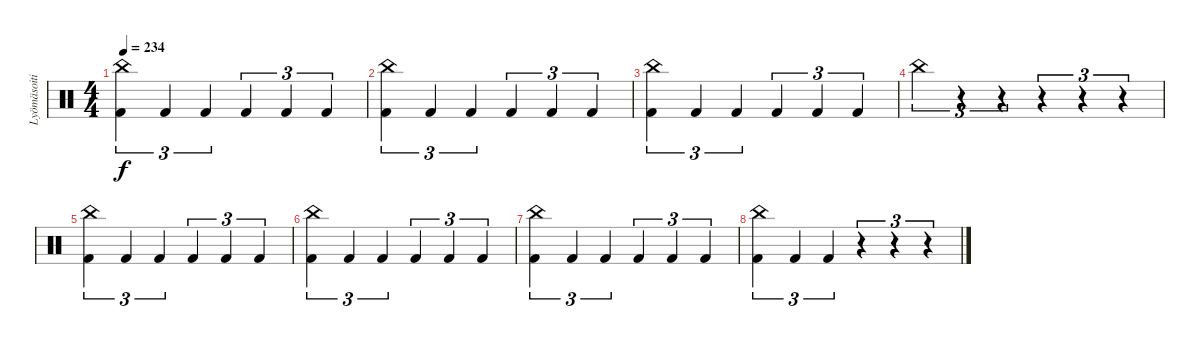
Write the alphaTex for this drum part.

\track ("Lyömäsoitin" "Lyömäsoiti") {instrument percussion}
\staff {score}
\articulation defaults
\ts (4 4)
\tempo 234
\clef neutral
\ks c
("China (hit)" "Kick (hit) 2").4{tu (3 2) dy f} "Kick (hit) 2".4{tu (3 2)} "Kick (hit) 2".4{tu (3 2)} "Kick (hit) 2".4{tu (3 2)} "Kick (hit) 2".4{tu (3 2)} "Kick (hit) 2".4{tu (3 2)} |
("China (hit)" "Kick (hit) 2").4{tu (3 2)} "Kick (hit) 2".4{tu (3 2)} "Kick (hit) 2".4{tu (3 2)} "Kick (hit) 2".4{tu (3 2)} "Kick (hit) 2".4{tu (3 2)} "Kick (hit) 2".4{tu (3 2)} |
("China (hit)" "Kick (hit) 2").4{tu (3 2)} "Kick (hit) 2".4{tu (3 2)} "Kick (hit) 2".4{tu (3 2)} "Kick (hit) 2".4{tu (3 2)} "Kick (hit) 2".4{tu (3 2)} "Kick (hit) 2".4{tu (3 2)} |
"China (hit)".4{tu (3 2)} r.4{tu (3 2)} r.4{tu (3 2)} r.4{tu (3 2)} r.4{tu (3 2)} r.4{tu (3 2)} |
("China (hit)" "Kick (hit) 2").4{tu (3 2)} "Kick (hit) 2".4{tu (3 2)} "Kick (hit) 2".4{tu (3 2)} "Kick (hit) 2".4{tu (3 2)} "Kick (hit) 2".4{tu (3 2)} "Kick (hit) 2".4{tu (3 2)} |
("China (hit)" "Kick (hit) 2").4{tu (3 2)} "Kick (hit) 2".4{tu (3 2)} "Kick (hit) 2".4{tu (3 2)} "Kick (hit) 2".4{tu (3 2)} "Kick (hit) 2".4{tu (3 2)} "Kick (hit) 2".4{tu (3 2)} |
("China (hit)" "Kick (hit) 2").4{tu (3 2)} "Kick (hit) 2".4{tu (3 2)} "Kick (hit) 2".4{tu (3 2)} "Kick (hit) 2".4{tu (3 2)} "Kick (hit) 2".4{tu (3 2)} "Kick (hit) 2".4{tu (3 2)} |
("China (hit)" "Kick (hit) 2").4{tu (3 2)} "Kick (hit) 2".4{tu (3 2)} "Kick (hit) 2".4{tu (3 2)} r.4{tu (3 2)} r.4{tu (3 2)} r.4{tu (3 2)}
